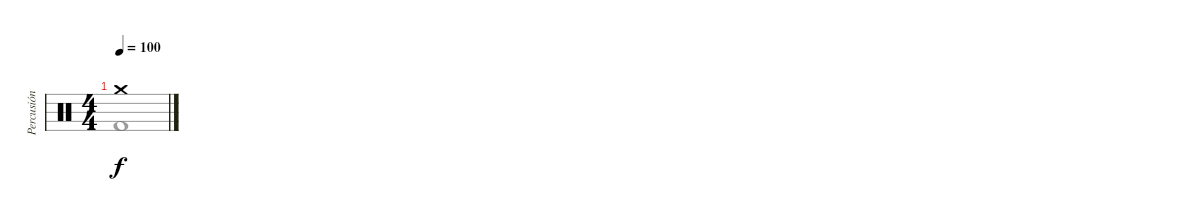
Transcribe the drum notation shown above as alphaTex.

\track ("Percusión" "Percusión") {instrument percussion}
\staff {score}
\articulation defaults
\voice
\ts (4 4)
\tempo 100
\clef neutral
\ks c "Crash medium (hit)".1{dy f}
|
|
|
\voice
\clef neutral
\ks c "Kick (hit) 2".1{dy f}
|
|
|
